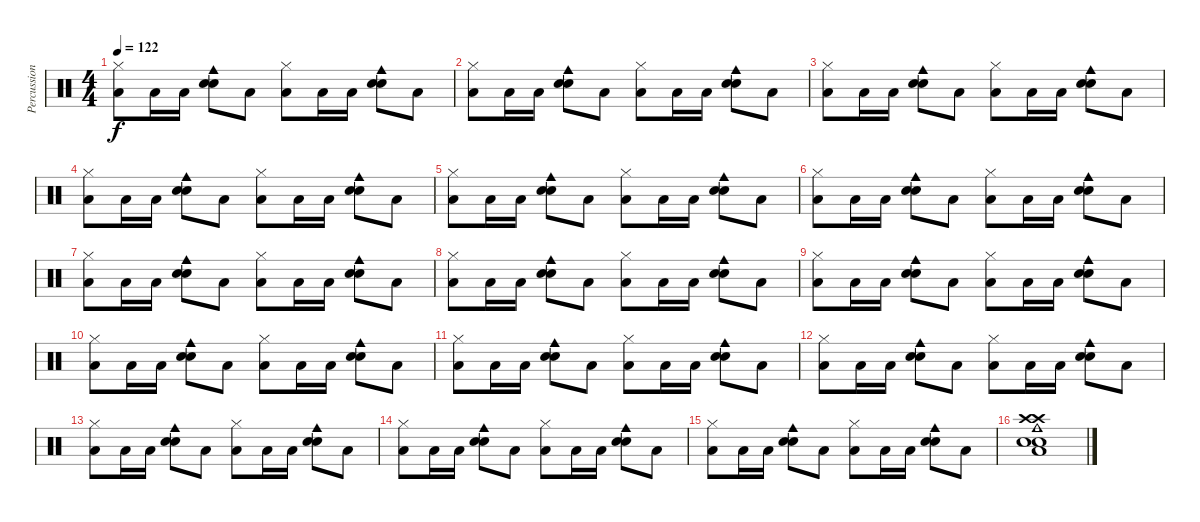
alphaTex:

\track ("Percussion" "Percussion") {instrument percussion}
\staff {score}
\articulation defaults
\ts (4 4)
\tempo 122
\clef neutral
\ks c
("Hi-Hat (closed)" "Low Tom (hit)").8{dy f} "Low Tom (hit)".16 "Low Tom (hit)".16 ("Snare (hit) 2" "Electric Snare (hit)" "Cowbell medium (hit)").8 "Low Tom (hit)".8 ("Hi-Hat (closed)" "Low Tom (hit)").8 "Low Tom (hit)".16 "Low Tom (hit)".16 ("Snare (hit) 2" "Electric Snare (hit)" "Cowbell medium (hit)").8 "Low Tom (hit)".8 |
("Hi-Hat (closed)" "Low Tom (hit)").8 "Low Tom (hit)".16 "Low Tom (hit)".16 ("Snare (hit) 2" "Electric Snare (hit)" "Cowbell medium (hit)").8 "Low Tom (hit)".8 ("Hi-Hat (closed)" "Low Tom (hit)").8 "Low Tom (hit)".16 "Low Tom (hit)".16 ("Snare (hit) 2" "Electric Snare (hit)" "Cowbell medium (hit)").8 "Low Tom (hit)".8 |
("Hi-Hat (closed)" "Low Tom (hit)").8 "Low Tom (hit)".16 "Low Tom (hit)".16 ("Snare (hit) 2" "Electric Snare (hit)" "Cowbell medium (hit)").8 "Low Tom (hit)".8 ("Hi-Hat (closed)" "Low Tom (hit)").8 "Low Tom (hit)".16 "Low Tom (hit)".16 ("Snare (hit) 2" "Electric Snare (hit)" "Cowbell medium (hit)").8 "Low Tom (hit)".8 |
("Hi-Hat (closed)" "Low Tom (hit)").8 "Low Tom (hit)".16 "Low Tom (hit)".16 ("Snare (hit) 2" "Electric Snare (hit)" "Cowbell medium (hit)").8 "Low Tom (hit)".8 ("Hi-Hat (closed)" "Low Tom (hit)").8 "Low Tom (hit)".16 "Low Tom (hit)".16 ("Snare (hit) 2" "Electric Snare (hit)" "Cowbell medium (hit)").8 "Low Tom (hit)".8 |
("Hi-Hat (closed)" "Low Tom (hit)").8 "Low Tom (hit)".16 "Low Tom (hit)".16 ("Snare (hit) 2" "Electric Snare (hit)" "Cowbell medium (hit)").8 "Low Tom (hit)".8 ("Hi-Hat (closed)" "Low Tom (hit)").8 "Low Tom (hit)".16 "Low Tom (hit)".16 ("Snare (hit) 2" "Electric Snare (hit)" "Cowbell medium (hit)").8 "Low Tom (hit)".8 |
("Hi-Hat (closed)" "Low Tom (hit)").8 "Low Tom (hit)".16 "Low Tom (hit)".16 ("Snare (hit) 2" "Electric Snare (hit)" "Cowbell medium (hit)").8 "Low Tom (hit)".8 ("Hi-Hat (closed)" "Low Tom (hit)").8 "Low Tom (hit)".16 "Low Tom (hit)".16 ("Snare (hit) 2" "Electric Snare (hit)" "Cowbell medium (hit)").8 "Low Tom (hit)".8 |
("Hi-Hat (closed)" "Low Tom (hit)").8 "Low Tom (hit)".16 "Low Tom (hit)".16 ("Snare (hit) 2" "Electric Snare (hit)" "Cowbell medium (hit)").8 "Low Tom (hit)".8 ("Hi-Hat (closed)" "Low Tom (hit)").8 "Low Tom (hit)".16 "Low Tom (hit)".16 ("Snare (hit) 2" "Electric Snare (hit)" "Cowbell medium (hit)").8 "Low Tom (hit)".8 |
("Hi-Hat (closed)" "Low Tom (hit)").8 "Low Tom (hit)".16 "Low Tom (hit)".16 ("Snare (hit) 2" "Electric Snare (hit)" "Cowbell medium (hit)").8 "Low Tom (hit)".8 ("Hi-Hat (closed)" "Low Tom (hit)").8 "Low Tom (hit)".16 "Low Tom (hit)".16 ("Snare (hit) 2" "Electric Snare (hit)" "Cowbell medium (hit)").8 "Low Tom (hit)".8 |
("Hi-Hat (closed)" "Low Tom (hit)").8 "Low Tom (hit)".16 "Low Tom (hit)".16 ("Snare (hit) 2" "Electric Snare (hit)" "Cowbell medium (hit)").8 "Low Tom (hit)".8 ("Hi-Hat (closed)" "Low Tom (hit)").8 "Low Tom (hit)".16 "Low Tom (hit)".16 ("Snare (hit) 2" "Electric Snare (hit)" "Cowbell medium (hit)").8 "Low Tom (hit)".8 |
("Hi-Hat (closed)" "Low Tom (hit)").8 "Low Tom (hit)".16 "Low Tom (hit)".16 ("Snare (hit) 2" "Electric Snare (hit)" "Cowbell medium (hit)").8 "Low Tom (hit)".8 ("Hi-Hat (closed)" "Low Tom (hit)").8 "Low Tom (hit)".16 "Low Tom (hit)".16 ("Snare (hit) 2" "Electric Snare (hit)" "Cowbell medium (hit)").8 "Low Tom (hit)".8 |
("Hi-Hat (closed)" "Low Tom (hit)").8 "Low Tom (hit)".16 "Low Tom (hit)".16 ("Snare (hit) 2" "Electric Snare (hit)" "Cowbell medium (hit)").8 "Low Tom (hit)".8 ("Hi-Hat (closed)" "Low Tom (hit)").8 "Low Tom (hit)".16 "Low Tom (hit)".16 ("Snare (hit) 2" "Electric Snare (hit)" "Cowbell medium (hit)").8 "Low Tom (hit)".8 |
("Hi-Hat (closed)" "Low Tom (hit)").8 "Low Tom (hit)".16 "Low Tom (hit)".16 ("Snare (hit) 2" "Electric Snare (hit)" "Cowbell medium (hit)").8 "Low Tom (hit)".8 ("Hi-Hat (closed)" "Low Tom (hit)").8 "Low Tom (hit)".16 "Low Tom (hit)".16 ("Snare (hit) 2" "Electric Snare (hit)" "Cowbell medium (hit)").8 "Low Tom (hit)".8 |
("Hi-Hat (closed)" "Low Tom (hit)").8 "Low Tom (hit)".16 "Low Tom (hit)".16 ("Snare (hit) 2" "Electric Snare (hit)" "Cowbell medium (hit)").8 "Low Tom (hit)".8 ("Hi-Hat (closed)" "Low Tom (hit)").8 "Low Tom (hit)".16 "Low Tom (hit)".16 ("Snare (hit) 2" "Electric Snare (hit)" "Cowbell medium (hit)").8 "Low Tom (hit)".8 |
("Hi-Hat (closed)" "Low Tom (hit)").8 "Low Tom (hit)".16 "Low Tom (hit)".16 ("Snare (hit) 2" "Electric Snare (hit)" "Cowbell medium (hit)").8 "Low Tom (hit)".8 ("Hi-Hat (closed)" "Low Tom (hit)").8 "Low Tom (hit)".16 "Low Tom (hit)".16 ("Snare (hit) 2" "Electric Snare (hit)" "Cowbell medium (hit)").8 "Low Tom (hit)".8 |
("Hi-Hat (closed)" "Low Tom (hit)").8 "Low Tom (hit)".16 "Low Tom (hit)".16 ("Snare (hit) 2" "Electric Snare (hit)" "Cowbell medium (hit)").8 "Low Tom (hit)".8 ("Hi-Hat (closed)" "Low Tom (hit)").8 "Low Tom (hit)".16 "Low Tom (hit)".16 ("Snare (hit) 2" "Electric Snare (hit)" "Cowbell medium (hit)").8 "Low Tom (hit)".8 |
("Snare (hit) 2" "Electric Snare (hit)" "Cowbell medium (hit)" "Crash high (hit)" "Low Tom (hit)" "Crash high (hit)").1
